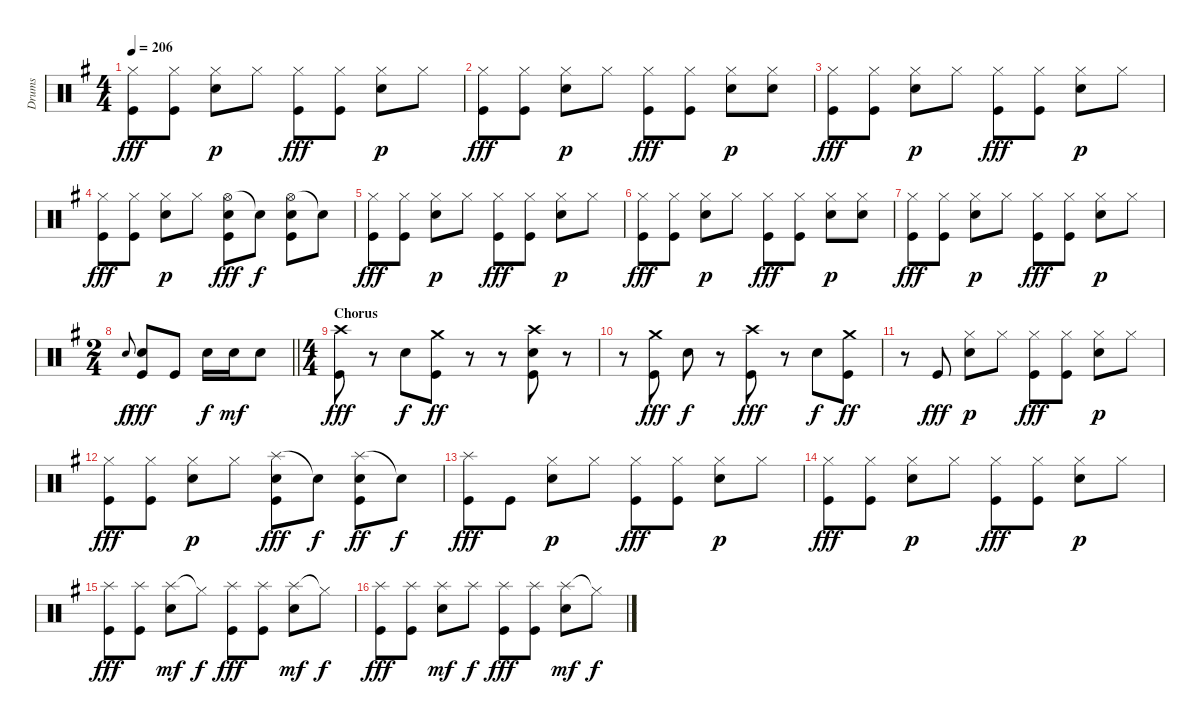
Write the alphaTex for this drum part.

\track ("Drums" "Drums") {instrument percussion}
\staff {score}
\articulation defaults
\ts (4 4)
\tempo 206
\clef neutral
\ks g
("Hi-Hat (closed)" "Kick (hit)").8{dy fff} ("Hi-Hat (closed)" "Kick (hit)").8 ("Hi-Hat (closed)" "Snare (hit) 2").8{dy p} "Hi-Hat (closed)".8 ("Hi-Hat (closed)" "Kick (hit)").8{dy fff} ("Hi-Hat (closed)" "Kick (hit)").8 ("Hi-Hat (closed)" "Snare (hit) 2").8{dy p} "Hi-Hat (closed)".8 |
("Hi-Hat (closed)" "Kick (hit)").8{dy fff} ("Hi-Hat (closed)" "Kick (hit)").8 ("Hi-Hat (closed)" "Snare (hit) 2").8{dy p} "Hi-Hat (closed)".8 ("Hi-Hat (closed)" "Kick (hit)").8{dy fff} ("Hi-Hat (closed)" "Kick (hit)").8 ("Hi-Hat (closed)" "Snare (hit) 2").8{dy p} ("Hi-Hat (closed)" "Snare (hit) 2").8 |
("Hi-Hat (closed)" "Kick (hit)").8{dy fff} ("Hi-Hat (closed)" "Kick (hit)").8 ("Hi-Hat (closed)" "Snare (hit) 2").8{dy p} "Hi-Hat (closed)".8 ("Hi-Hat (closed)" "Kick (hit)").8{dy fff} ("Hi-Hat (closed)" "Kick (hit)").8 ("Hi-Hat (closed)" "Snare (hit) 2").8{dy p} "Hi-Hat (closed)".8 |
("Hi-Hat (closed)" "Kick (hit)").8{dy fff} ("Hi-Hat (closed)" "Kick (hit)").8 ("Hi-Hat (closed)" "Snare (hit) 2").8{dy p} "Hi-Hat (closed)".8 ("Hi-Hat (open)" "Snare (hit) 2" "Kick (hit)").8{dy fff} "Snare (hit)"{t}.8{dy f} ("Hi-Hat (open)" "Snare (hit) 2" "Kick (hit)").8 "Snare (hit)"{t}.8 |
("Hi-Hat (closed)" "Kick (hit)").8{dy fff} ("Hi-Hat (closed)" "Kick (hit)").8 ("Hi-Hat (closed)" "Snare (hit) 2").8{dy p} "Hi-Hat (closed)".8 ("Hi-Hat (closed)" "Kick (hit)").8{dy fff} ("Hi-Hat (closed)" "Kick (hit)").8 ("Hi-Hat (closed)" "Snare (hit) 2").8{dy p} "Hi-Hat (closed)".8 |
("Hi-Hat (closed)" "Kick (hit)").8{dy fff} ("Hi-Hat (closed)" "Kick (hit)").8 ("Hi-Hat (closed)" "Snare (hit) 2").8{dy p} "Hi-Hat (closed)".8 ("Hi-Hat (closed)" "Kick (hit)").8{dy fff} ("Hi-Hat (closed)" "Kick (hit)").8 ("Hi-Hat (closed)" "Snare (hit) 2").8{dy p} ("Hi-Hat (closed)" "Snare (hit) 2").8 |
("Hi-Hat (closed)" "Kick (hit)").8{dy fff} ("Hi-Hat (closed)" "Kick (hit)").8 ("Hi-Hat (closed)" "Snare (hit) 2").8{dy p} "Hi-Hat (closed)".8 ("Hi-Hat (closed)" "Kick (hit)").8{dy fff} ("Hi-Hat (closed)" "Kick (hit)").8 ("Hi-Hat (closed)" "Snare (hit) 2").8{dy p} "Hi-Hat (closed)".8 |
\ts (2 4)
\barLineRight lightlight "Snare (hit) 2".8{gr onbeat dy f}
("Snare (hit) 2" "Kick (hit)").8{dy fff} "Kick (hit)".8 "Snare (hit) 2".16{dy f} "Snare (hit) 2".16{dy mf} "Snare (hit) 2".8 |
\ts (4 4)
\section ("" "Chorus")
("Crash high (hit)" "Kick (hit)").8{dy fff} r.8 "Snare (hit) 2".8{dy f} ("Crash medium (hit)" "Kick (hit)").8{dy ff} r.8 r.8 ("Crash high (hit)" "Snare (hit) 2" "Kick (hit)").8 r.8 |
r.8 ("Crash medium (hit)" "Kick (hit)").8{dy fff} "Snare (hit) 2".8{dy f} r.8 ("Crash high (hit)" "Kick (hit)").8{dy fff} r.8 "Snare (hit) 2".8{dy f} ("Crash medium (hit)" "Kick (hit)").8{dy ff} |
r.8 "Kick (hit)".8{dy fff} ("Hi-Hat (closed)" "Snare (hit) 2").8{dy p} "Hi-Hat (closed)".8 ("Hi-Hat (closed)" "Kick (hit)").8{dy fff} ("Hi-Hat (closed)" "Kick (hit)").8 ("Hi-Hat (closed)" "Snare (hit) 2").8{dy p} "Hi-Hat (closed)".8 |
("Hi-Hat (closed)" "Kick (hit)").8{dy fff} ("Hi-Hat (closed)" "Kick (hit)").8 ("Hi-Hat (closed)" "Snare (hit) 2").8{dy p} "Hi-Hat (closed)".8 ("Splash (hit)" "Snare (hit) 2" "Kick (hit)").8{dy fff} "Snare (hit)"{t}.8{dy f} ("Splash (hit)" "Snare (hit) 2" "Kick (hit)").8{dy ff} "Snare (hit)"{t}.8{dy f} |
("Splash (hit)" "Kick (hit)").8{dy fff} "Kick (hit)".8 ("Hi-Hat (closed)" "Snare (hit) 2").8{dy p} "Hi-Hat (closed)".8 ("Hi-Hat (closed)" "Kick (hit)").8{dy fff} ("Hi-Hat (closed)" "Kick (hit)").8 ("Hi-Hat (closed)" "Snare (hit) 2").8{dy p} "Hi-Hat (closed)".8 |
("Hi-Hat (closed)" "Kick (hit)").8{dy fff} ("Hi-Hat (closed)" "Kick (hit)").8 ("Hi-Hat (closed)" "Snare (hit) 2").8{dy p} "Hi-Hat (closed)".8 ("Hi-Hat (closed)" "Kick (hit)").8{dy fff} ("Hi-Hat (closed)" "Kick (hit)").8 ("Hi-Hat (closed)" "Snare (hit) 2").8{dy p} "Hi-Hat (closed)".8 |
("Splash (hit)" "Kick (hit)").8{dy fff} ("Splash (hit)" "Kick (hit)").8 ("Splash (hit)" "Snare (hit) 2").8{dy mf} "Hi-Hat (closed)"{t}.8{dy f} ("Splash (hit)" "Kick (hit)").8{dy fff} ("Splash (hit)" "Kick (hit)").8 ("Splash (hit)" "Snare (hit) 2").8{dy mf} "Hi-Hat (closed)"{t}.8{dy f} |
("Splash (hit)" "Kick (hit)").8{dy fff} ("Splash (hit)" "Kick (hit)").8 ("Splash (hit)" "Snare (hit) 2").8{dy mf} "Splash (hit)".8{dy f} ("Splash (hit)" "Kick (hit)").8{dy fff} ("Splash (hit)" "Kick (hit)").8 ("Splash (hit)" "Snare (hit) 2").8{dy mf} "Hi-Hat (closed)"{t}.8{dy f}
